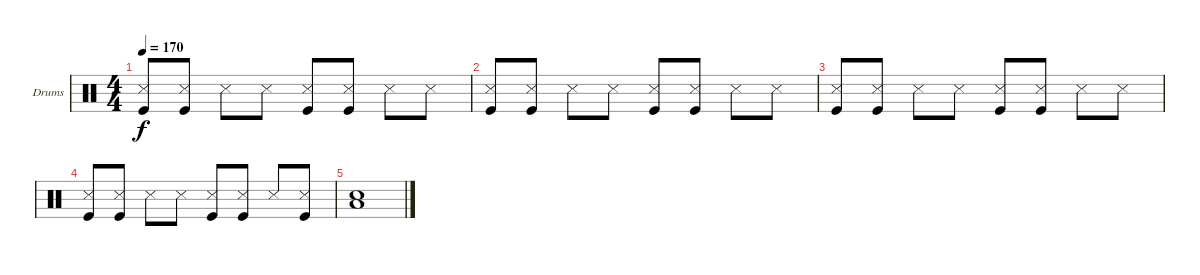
\bracketExtendMode groupsimilarinstruments
\firstSystemTrackNameOrientation horizontal
\otherSystemsTrackNameOrientation horizontal
\track ("Drumkit" "Drums") {instrument percussion}
\staff {score}
\articulation defaults
\ts (4 4)
\tempo 170
\clef neutral
\ks c
("Snare (side stick) 3" "Kick (hit)").8{dy f} ("Snare (side stick) 3" "Kick (hit)").8 "Snare (side stick) 3".8 "Snare (side stick) 3".8 ("Snare (side stick) 3" "Kick (hit)").8 ("Snare (side stick) 3" "Kick (hit)").8 "Snare (side stick) 3".8 "Snare (side stick) 3".8 |
("Snare (side stick) 3" "Kick (hit)").8 ("Snare (side stick) 3" "Kick (hit)").8 "Snare (side stick) 3".8 "Snare (side stick) 3".8 ("Snare (side stick) 3" "Kick (hit)").8 ("Snare (side stick) 3" "Kick (hit)").8 "Snare (side stick) 3".8 "Snare (side stick) 3".8 |
("Snare (side stick) 3" "Kick (hit)").8 ("Snare (side stick) 3" "Kick (hit)").8 "Snare (side stick) 3".8 "Snare (side stick) 3".8 ("Snare (side stick) 3" "Kick (hit)").8 ("Snare (side stick) 3" "Kick (hit)").8 "Snare (side stick) 3".8 "Snare (side stick) 3".8 |
("Snare (side stick) 3" "Kick (hit)").8 ("Snare (side stick) 3" "Kick (hit)").8 "Snare (side stick) 3".8 "Snare (side stick) 3".8 ("Snare (side stick) 3" "Kick (hit)").8 ("Snare (side stick) 3" "Kick (hit)").8 "Snare (side stick) 3".8 ("Snare (side stick) 3" "Kick (hit)").8 |
("Low Tom (hit)" "Snare (hit) 2").1
